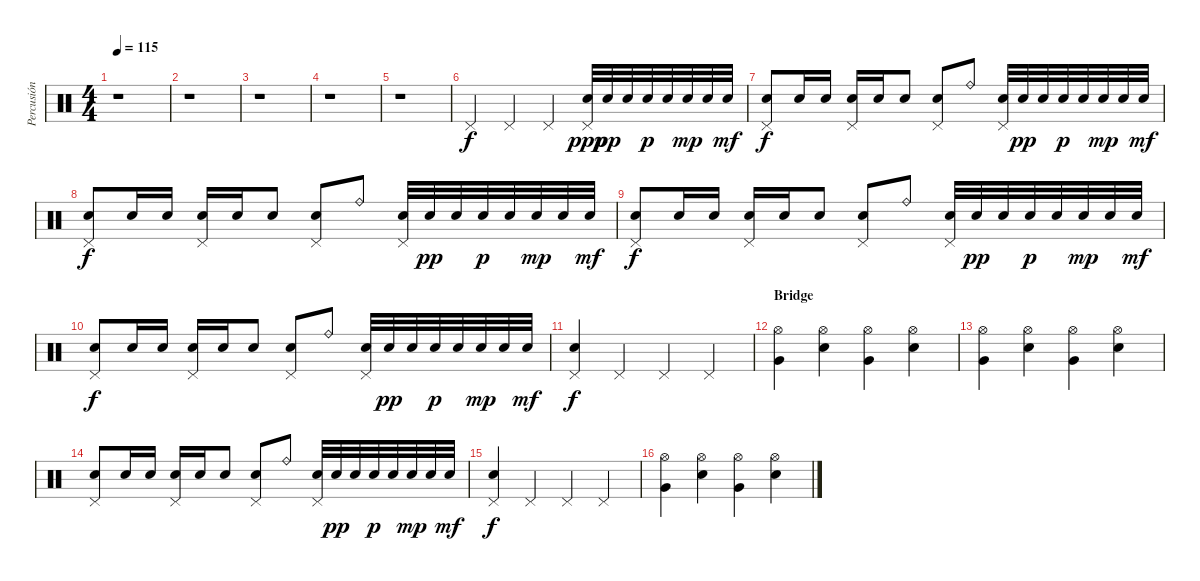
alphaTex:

\track ("Percusión" "Percusión") {instrument percussion}
\staff {score}
\articulation defaults
\ts (4 4)
\tempo 115
\clef neutral
\ks c
r.1{dy f} |
r.1 |
r.1 |
r.1 |
r.1 |
"Pedal Hi-Hat (hit)".4 "Pedal Hi-Hat (hit)".4 "Pedal Hi-Hat (hit)".4 ("Pedal Hi-Hat (hit)" "Electric Snare (hit)").32{dy ppp} "Electric Snare (hit)".32{dy pp} "Electric Snare (hit)".32 "Electric Snare (hit)".32{dy p} "Electric Snare (hit)".32 "Electric Snare (hit)".32{dy mp} "Electric Snare (hit)".32 "Electric Snare (hit)".32{dy mf} |
("Pedal Hi-Hat (hit)" "Electric Snare (hit)").8{dy f} "Electric Snare (hit)".16 "Electric Snare (hit)".16 ("Pedal Hi-Hat (hit)" "Electric Snare (hit)").16 "Electric Snare (hit)".16 "Electric Snare (hit)".8 ("Pedal Hi-Hat (hit)" "Electric Snare (hit)").8 "Ride (bell)".8 ("Pedal Hi-Hat (hit)" "Electric Snare (hit)").32 "Electric Snare (hit)".32{dy pp} "Electric Snare (hit)".32 "Electric Snare (hit)".32{dy p} "Electric Snare (hit)".32 "Electric Snare (hit)".32{dy mp} "Electric Snare (hit)".32 "Electric Snare (hit)".32{dy mf} |
("Pedal Hi-Hat (hit)" "Electric Snare (hit)").8{dy f} "Electric Snare (hit)".16 "Electric Snare (hit)".16 ("Pedal Hi-Hat (hit)" "Electric Snare (hit)").16 "Electric Snare (hit)".16 "Electric Snare (hit)".8 ("Pedal Hi-Hat (hit)" "Electric Snare (hit)").8 "Ride (bell)".8 ("Pedal Hi-Hat (hit)" "Electric Snare (hit)").32 "Electric Snare (hit)".32{dy pp} "Electric Snare (hit)".32 "Electric Snare (hit)".32{dy p} "Electric Snare (hit)".32 "Electric Snare (hit)".32{dy mp} "Electric Snare (hit)".32 "Electric Snare (hit)".32{dy mf} |
("Pedal Hi-Hat (hit)" "Electric Snare (hit)").8{dy f} "Electric Snare (hit)".16 "Electric Snare (hit)".16 ("Pedal Hi-Hat (hit)" "Electric Snare (hit)").16 "Electric Snare (hit)".16 "Electric Snare (hit)".8 ("Pedal Hi-Hat (hit)" "Electric Snare (hit)").8 "Ride (bell)".8 ("Pedal Hi-Hat (hit)" "Electric Snare (hit)").32 "Electric Snare (hit)".32{dy pp} "Electric Snare (hit)".32 "Electric Snare (hit)".32{dy p} "Electric Snare (hit)".32 "Electric Snare (hit)".32{dy mp} "Electric Snare (hit)".32 "Electric Snare (hit)".32{dy mf} |
("Pedal Hi-Hat (hit)" "Electric Snare (hit)").8{dy f} "Electric Snare (hit)".16 "Electric Snare (hit)".16 ("Pedal Hi-Hat (hit)" "Electric Snare (hit)").16 "Electric Snare (hit)".16 "Electric Snare (hit)".8 ("Pedal Hi-Hat (hit)" "Electric Snare (hit)").8 "Ride (bell)".8 ("Pedal Hi-Hat (hit)" "Electric Snare (hit)").32 "Electric Snare (hit)".32{dy pp} "Electric Snare (hit)".32 "Electric Snare (hit)".32{dy p} "Electric Snare (hit)".32 "Electric Snare (hit)".32{dy mp} "Electric Snare (hit)".32 "Electric Snare (hit)".32{dy mf} |
("Pedal Hi-Hat (hit)" "Electric Snare (hit)").4{dy f} "Pedal Hi-Hat (hit)".4 "Pedal Hi-Hat (hit)".4 "Pedal Hi-Hat (hit)".4 |
\section ("" "Bridge")
("Hi-Hat (open)" "Very Low Tom (hit)").4 ("Hi-Hat (open)" "Electric Snare (hit)").4 ("Hi-Hat (open)" "Very Low Tom (hit)").4 ("Hi-Hat (open)" "Electric Snare (hit)").4 |
("Hi-Hat (open)" "Very Low Tom (hit)").4 ("Hi-Hat (open)" "Electric Snare (hit)").4 ("Hi-Hat (open)" "Very Low Tom (hit)").4 ("Hi-Hat (open)" "Electric Snare (hit)").4 |
("Pedal Hi-Hat (hit)" "Electric Snare (hit)").8 "Electric Snare (hit)".16 "Electric Snare (hit)".16 ("Pedal Hi-Hat (hit)" "Electric Snare (hit)").16 "Electric Snare (hit)".16 "Electric Snare (hit)".8 ("Pedal Hi-Hat (hit)" "Electric Snare (hit)").8 "Ride (bell)".8 ("Pedal Hi-Hat (hit)" "Electric Snare (hit)").32 "Electric Snare (hit)".32{dy pp} "Electric Snare (hit)".32 "Electric Snare (hit)".32{dy p} "Electric Snare (hit)".32 "Electric Snare (hit)".32{dy mp} "Electric Snare (hit)".32 "Electric Snare (hit)".32{dy mf} |
("Pedal Hi-Hat (hit)" "Electric Snare (hit)").4{dy f} "Pedal Hi-Hat (hit)".4 "Pedal Hi-Hat (hit)".4 "Pedal Hi-Hat (hit)".4 |
("Hi-Hat (open)" "Very Low Tom (hit)").4 ("Hi-Hat (open)" "Electric Snare (hit)").4 ("Hi-Hat (open)" "Very Low Tom (hit)").4 ("Hi-Hat (open)" "Electric Snare (hit)").4
